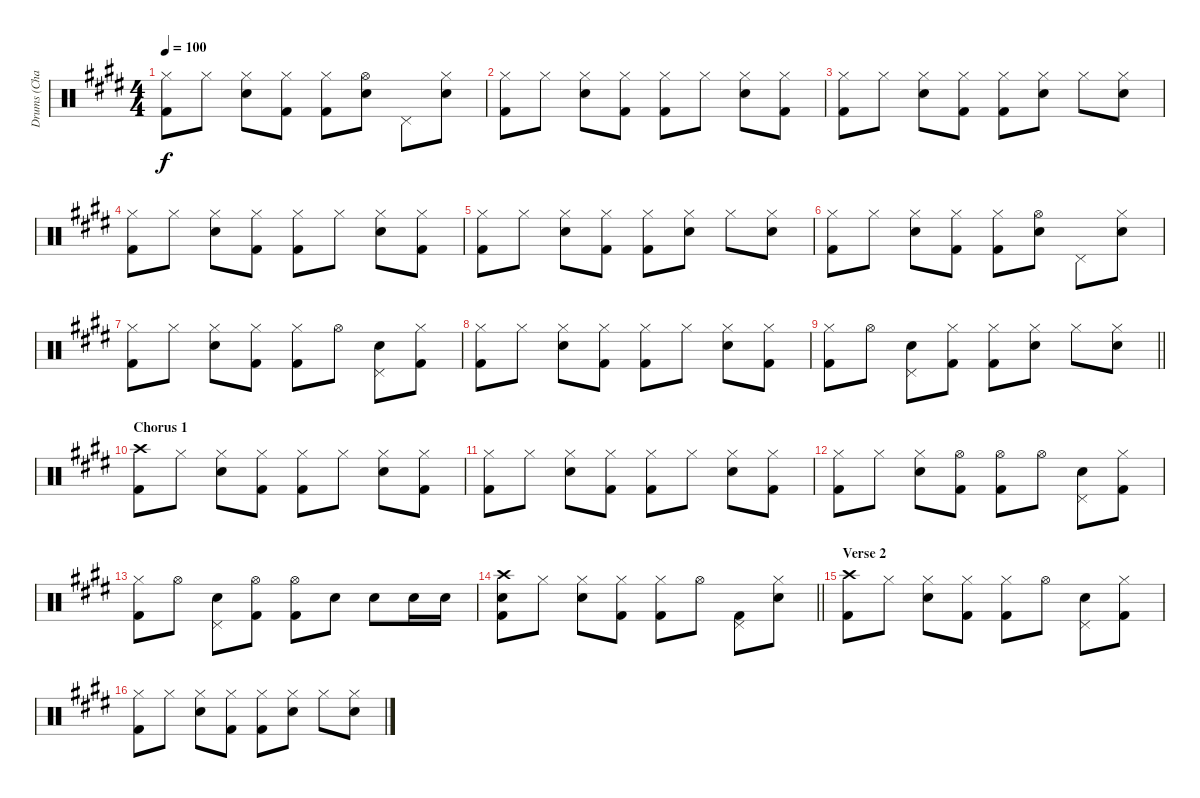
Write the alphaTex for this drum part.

\track ("Drums (Charlie)" "Drums (Cha") {instrument percussion}
\staff {score}
\articulation defaults
\ts (4 4)
\tempo 100
\clef neutral
\ks c#minor
("Hi-Hat (closed)" "Kick (hit) 2").8{dy f} "Hi-Hat (closed)".8 ("Hi-Hat (closed)" "Snare (hit) 2").8 ("Hi-Hat (closed)" "Kick (hit) 2").8 ("Hi-Hat (closed)" "Kick (hit) 2").8 ("Hi-Hat (open)" "Snare (hit) 2").8 "Pedal Hi-Hat (hit)".8 ("Hi-Hat (closed)" "Snare (hit) 2").8 |
\ks e
("Hi-Hat (closed)" "Kick (hit) 2").8 "Hi-Hat (closed)".8 ("Hi-Hat (closed)" "Snare (hit) 2").8 ("Hi-Hat (closed)" "Kick (hit) 2").8 ("Hi-Hat (closed)" "Kick (hit) 2").8 "Hi-Hat (closed)".8 ("Hi-Hat (closed)" "Snare (hit) 2").8 ("Hi-Hat (closed)" "Kick (hit) 2").8 |
\ks c#minor
("Hi-Hat (closed)" "Kick (hit) 2").8 "Hi-Hat (closed)".8 ("Hi-Hat (closed)" "Snare (hit) 2").8 ("Hi-Hat (closed)" "Kick (hit) 2").8 ("Hi-Hat (closed)" "Kick (hit) 2").8 ("Hi-Hat (closed)" "Snare (hit) 2").8 "Hi-Hat (closed)".8 ("Hi-Hat (closed)" "Snare (hit) 2").8 |
\ks e
("Hi-Hat (closed)" "Kick (hit) 2").8 "Hi-Hat (closed)".8 ("Hi-Hat (closed)" "Snare (hit) 2").8 ("Hi-Hat (closed)" "Kick (hit) 2").8 ("Hi-Hat (closed)" "Kick (hit) 2").8 "Hi-Hat (closed)".8 ("Hi-Hat (closed)" "Snare (hit) 2").8 ("Hi-Hat (closed)" "Kick (hit) 2").8 |
\ks c#minor
("Hi-Hat (closed)" "Kick (hit) 2").8 "Hi-Hat (closed)".8 ("Hi-Hat (closed)" "Snare (hit) 2").8 ("Hi-Hat (closed)" "Kick (hit) 2").8 ("Hi-Hat (closed)" "Kick (hit) 2").8 ("Hi-Hat (closed)" "Snare (hit) 2").8 "Hi-Hat (closed)".8 ("Hi-Hat (closed)" "Snare (hit) 2").8 |
\ks e
("Hi-Hat (closed)" "Kick (hit) 2").8 "Hi-Hat (closed)".8 ("Hi-Hat (closed)" "Snare (hit) 2").8 ("Hi-Hat (closed)" "Kick (hit) 2").8 ("Hi-Hat (closed)" "Kick (hit) 2").8 ("Hi-Hat (open)" "Snare (hit) 2").8 "Pedal Hi-Hat (hit)".8 ("Hi-Hat (closed)" "Snare (hit) 2").8 |
\ks c#minor
("Hi-Hat (closed)" "Kick (hit) 2").8 "Hi-Hat (closed)".8 ("Hi-Hat (closed)" "Snare (hit) 2").8 ("Hi-Hat (closed)" "Kick (hit) 2").8 ("Hi-Hat (closed)" "Kick (hit) 2").8 "Hi-Hat (open)".8 ("Pedal Hi-Hat (hit)" "Snare (hit) 2").8 ("Hi-Hat (closed)" "Kick (hit) 2").8 |
\ks e
("Hi-Hat (closed)" "Kick (hit) 2").8 "Hi-Hat (closed)".8 ("Hi-Hat (closed)" "Snare (hit) 2").8 ("Hi-Hat (closed)" "Kick (hit) 2").8 ("Hi-Hat (closed)" "Kick (hit) 2").8 "Hi-Hat (closed)".8 ("Hi-Hat (closed)" "Snare (hit) 2").8 ("Hi-Hat (closed)" "Kick (hit) 2").8 |
\barLineRight lightlight
\ks c#minor
("Hi-Hat (closed)" "Kick (hit) 2").8 "Hi-Hat (open)".8 ("Pedal Hi-Hat (hit)" "Snare (hit) 2").8 ("Hi-Hat (closed)" "Kick (hit) 2").8 ("Hi-Hat (closed)" "Kick (hit) 2").8 ("Hi-Hat (closed)" "Snare (hit) 2").8 "Hi-Hat (closed)".8 ("Hi-Hat (closed)" "Snare (hit) 2").8 |
\section ("" "Chorus 1")
\ks e
("Crash high (hit)" "Kick (hit) 2").8 "Hi-Hat (closed)".8 ("Hi-Hat (closed)" "Snare (hit) 2").8 ("Hi-Hat (closed)" "Kick (hit) 2").8 ("Hi-Hat (closed)" "Kick (hit) 2").8 "Hi-Hat (closed)".8 ("Hi-Hat (closed)" "Snare (hit) 2").8 ("Hi-Hat (closed)" "Kick (hit) 2").8 |
\ks c#minor
("Hi-Hat (closed)" "Kick (hit) 2").8 "Hi-Hat (closed)".8 ("Hi-Hat (closed)" "Snare (hit) 2").8 ("Hi-Hat (closed)" "Kick (hit) 2").8 ("Hi-Hat (closed)" "Kick (hit) 2").8 "Hi-Hat (closed)".8 ("Hi-Hat (closed)" "Snare (hit) 2").8 ("Hi-Hat (closed)" "Kick (hit) 2").8 |
\ks e
("Hi-Hat (closed)" "Kick (hit) 2").8 "Hi-Hat (closed)".8 ("Hi-Hat (closed)" "Snare (hit) 2").8 ("Hi-Hat (open)" "Kick (hit) 2").8 ("Hi-Hat (open)" "Kick (hit) 2").8 "Hi-Hat (open)".8 ("Pedal Hi-Hat (hit)" "Snare (hit) 2").8 ("Hi-Hat (closed)" "Kick (hit) 2").8 |
\ks c#minor
("Hi-Hat (closed)" "Kick (hit) 2").8 "Hi-Hat (open)".8 ("Pedal Hi-Hat (hit)" "Snare (hit) 2").8 ("Hi-Hat (open)" "Kick (hit) 2").8 ("Hi-Hat (open)" "Kick (hit) 2").8 "Snare (hit) 2".8 "Snare (hit) 2".8 "Snare (hit) 2".16 "Snare (hit) 2".16 |
\barLineRight lightlight
\ks e
("Crash high (hit)" "Snare (hit) 2" "Kick (hit) 2").8 "Hi-Hat (closed)".8 ("Hi-Hat (closed)" "Snare (hit) 2").8 ("Hi-Hat (closed)" "Kick (hit) 2").8 ("Hi-Hat (closed)" "Kick (hit) 2").8 "Hi-Hat (open)".8 ("Pedal Hi-Hat (hit)" "Kick (hit) 2").8 ("Hi-Hat (closed)" "Snare (hit) 2").8 |
\section ("" "Verse 2")
("Crash high (hit)" "Kick (hit) 2").8 "Hi-Hat (closed)".8 ("Hi-Hat (closed)" "Snare (hit) 2").8 ("Hi-Hat (closed)" "Kick (hit) 2").8 ("Hi-Hat (closed)" "Kick (hit) 2").8 "Hi-Hat (open)".8 ("Pedal Hi-Hat (hit)" "Snare (hit) 2").8 ("Hi-Hat (closed)" "Kick (hit) 2").8 |
\ks c#minor
("Hi-Hat (closed)" "Kick (hit) 2").8 "Hi-Hat (closed)".8 ("Hi-Hat (closed)" "Snare (hit) 2").8 ("Hi-Hat (closed)" "Kick (hit) 2").8 ("Hi-Hat (closed)" "Kick (hit) 2").8 ("Hi-Hat (closed)" "Snare (hit) 2").8 "Hi-Hat (closed)".8 ("Hi-Hat (closed)" "Snare (hit) 2").8
